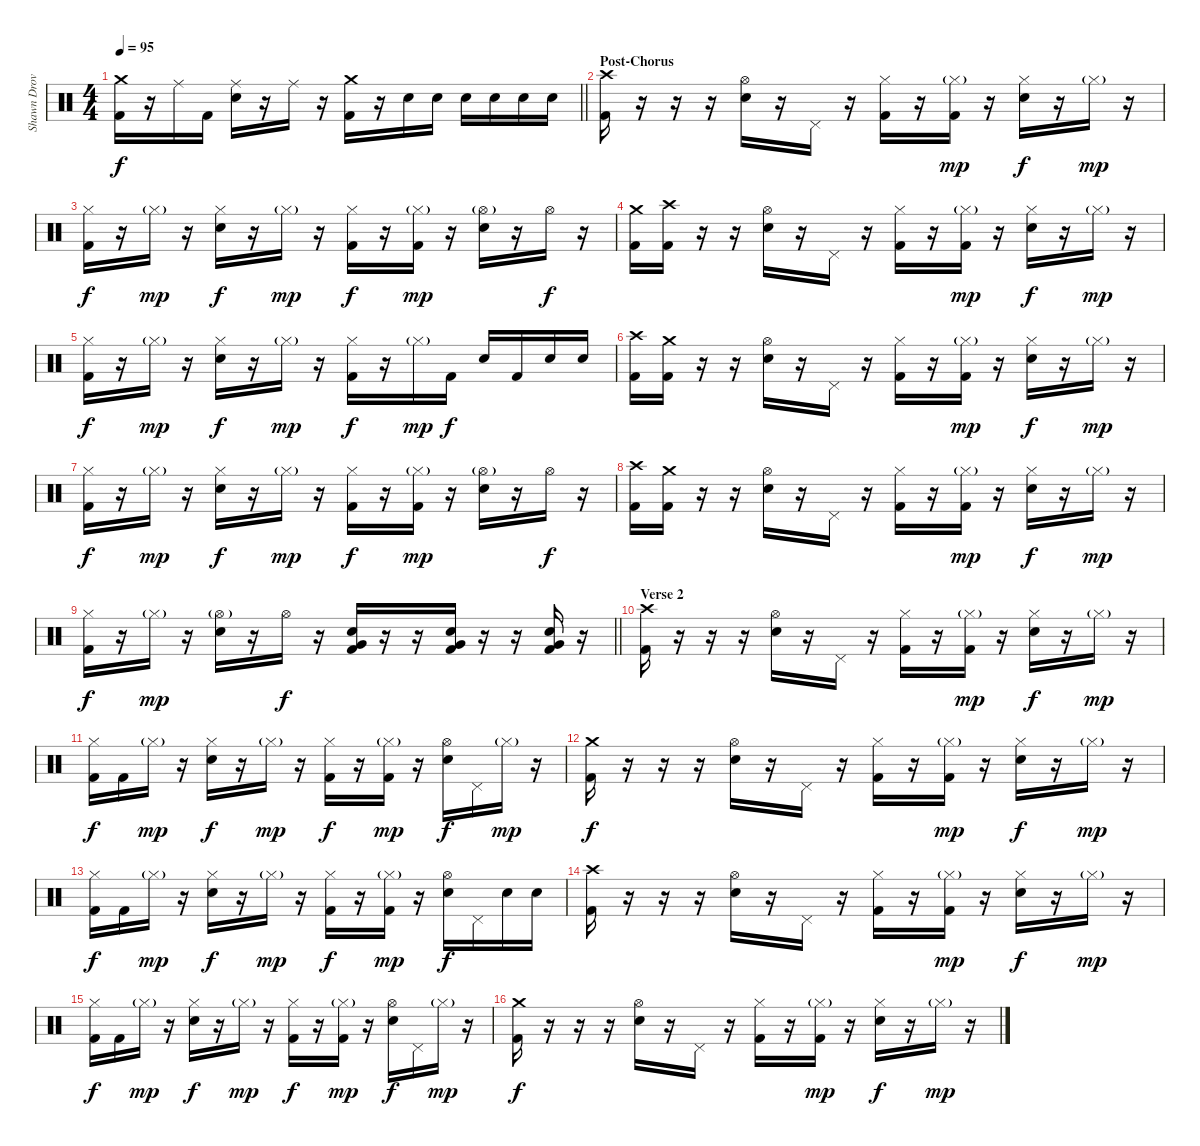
\track ("Shawn Drover" "Shawn Drov") {instrument percussion}
\staff {score}
\articulation defaults
\ts (4 4)
\tempo 95
\clef neutral
\barLineRight lightlight
\ks c
("Crash medium (hit)" "Kick (hit) 2").16{dy f} r.16 "Ride (middle)".16 "Kick (hit) 2".16 ("Ride (middle)" "Snare (hit) 2").16 r.16 "Ride (middle)".16 r.16 ("Crash medium (hit)" "Kick (hit) 2").16 r.16 "Snare (hit) 2".16 "Snare (hit) 2".16 "Snare (hit) 2".16 "Snare (hit) 2".16 "Snare (hit) 2".16 "Snare (hit) 2".16 |
\section ("" "Post-Chorus")
("Crash high (hit)" "Kick (hit) 2").16 r.16 r.16 r.16 ("Hi-Hat (open)" "Snare (hit) 2").16 r.16 "Pedal Hi-Hat (hit)".16 r.16 ("Hi-Hat (closed)" "Kick (hit) 2").16 r.16 ("Hi-Hat (closed)"{g} "Kick (hit) 2").16{dy mp} r.16 ("Hi-Hat (closed)" "Snare (hit) 2").16{dy f} r.16 "Hi-Hat (closed)"{g}.16{dy mp} r.16 |
("Hi-Hat (closed)" "Kick (hit) 2").16{dy f} r.16 "Hi-Hat (closed)"{g}.16{dy mp} r.16 ("Hi-Hat (closed)" "Snare (hit) 2").16{dy f} r.16 "Hi-Hat (closed)"{g}.16{dy mp} r.16 ("Hi-Hat (closed)" "Kick (hit) 2").16{dy f} r.16 ("Hi-Hat (closed)"{g} "Kick (hit) 2").16{dy mp} r.16 ("Hi-Hat (open)"{g} "Snare (hit) 2").16 r.16 "Hi-Hat (open)".16{dy f} r.16 |
("Crash medium (hit)" "Kick (hit) 2").16 ("Crash high (hit)" "Kick (hit) 2").16 r.16 r.16 ("Hi-Hat (open)" "Snare (hit) 2").16 r.16 "Pedal Hi-Hat (hit)".16 r.16 ("Hi-Hat (closed)" "Kick (hit) 2").16 r.16 ("Hi-Hat (closed)"{g} "Kick (hit) 2").16{dy mp} r.16 ("Hi-Hat (closed)" "Snare (hit) 2").16{dy f} r.16 "Hi-Hat (closed)"{g}.16{dy mp} r.16 |
("Hi-Hat (closed)" "Kick (hit) 2").16{dy f} r.16 "Hi-Hat (closed)"{g}.16{dy mp} r.16 ("Hi-Hat (closed)" "Snare (hit) 2").16{dy f} r.16 "Hi-Hat (closed)"{g}.16{dy mp} r.16 ("Hi-Hat (closed)" "Kick (hit) 2").16{dy f} r.16 "Hi-Hat (closed)"{g}.16{dy mp} "Kick (hit) 2".16{dy f} "Snare (hit) 2".16 "Kick (hit) 2".16 "Snare (hit) 2".16 "Snare (hit) 2".16 |
("Crash high (hit)" "Kick (hit) 2").16 ("Crash medium (hit)" "Kick (hit) 2").16 r.16 r.16 ("Hi-Hat (open)" "Snare (hit) 2").16 r.16 "Pedal Hi-Hat (hit)".16 r.16 ("Hi-Hat (closed)" "Kick (hit) 2").16 r.16 ("Hi-Hat (closed)"{g} "Kick (hit) 2").16{dy mp} r.16 ("Hi-Hat (closed)" "Snare (hit) 2").16{dy f} r.16 "Hi-Hat (closed)"{g}.16{dy mp} r.16 |
("Hi-Hat (closed)" "Kick (hit) 2").16{dy f} r.16 "Hi-Hat (closed)"{g}.16{dy mp} r.16 ("Hi-Hat (closed)" "Snare (hit) 2").16{dy f} r.16 "Hi-Hat (closed)"{g}.16{dy mp} r.16 ("Hi-Hat (closed)" "Kick (hit) 2").16{dy f} r.16 ("Hi-Hat (closed)"{g} "Kick (hit) 2").16{dy mp} r.16 ("Hi-Hat (open)"{g} "Snare (hit) 2").16 r.16 "Hi-Hat (open)".16{dy f} r.16 |
("Crash high (hit)" "Kick (hit) 2").16 ("Crash medium (hit)" "Kick (hit) 2").16 r.16 r.16 ("Hi-Hat (open)" "Snare (hit) 2").16 r.16 "Pedal Hi-Hat (hit)".16 r.16 ("Hi-Hat (closed)" "Kick (hit) 2").16 r.16 ("Hi-Hat (closed)"{g} "Kick (hit) 2").16{dy mp} r.16 ("Hi-Hat (closed)" "Snare (hit) 2").16{dy f} r.16 "Hi-Hat (closed)"{g}.16{dy mp} r.16 |
\barLineRight lightlight
("Hi-Hat (closed)" "Kick (hit) 2").16{dy f} r.16 "Hi-Hat (closed)"{g}.16{dy mp} r.16 ("Hi-Hat (open)"{g} "Snare (hit) 2").16 r.16 "Hi-Hat (open)".16{dy f} r.16 ("Very Low Tom (hit)" "Snare (hit) 2" "Kick (hit) 2").16 r.16 r.16 ("Very Low Tom (hit)" "Snare (hit) 2" "Kick (hit) 2").16 r.16 r.16 ("Very Low Tom (hit)" "Snare (hit) 2" "Kick (hit) 2").16 r.16 |
\section ("" "Verse 2")
("Crash high (hit)" "Kick (hit) 2").16 r.16 r.16 r.16 ("Hi-Hat (open)" "Snare (hit) 2").16 r.16 "Pedal Hi-Hat (hit)".16 r.16 ("Hi-Hat (closed)" "Kick (hit) 2").16 r.16 ("Hi-Hat (closed)"{g} "Kick (hit) 2").16{dy mp} r.16 ("Hi-Hat (closed)" "Snare (hit) 2").16{dy f} r.16 "Hi-Hat (closed)"{g}.16{dy mp} r.16 |
("Hi-Hat (closed)" "Kick (hit) 2").16{dy f} "Kick (hit) 2".16 "Hi-Hat (closed)"{g}.16{dy mp} r.16 ("Hi-Hat (closed)" "Snare (hit) 2").16{dy f} r.16 "Hi-Hat (closed)"{g}.16{dy mp} r.16 ("Hi-Hat (closed)" "Kick (hit) 2").16{dy f} r.16 ("Hi-Hat (closed)"{g} "Kick (hit) 2").16{dy mp} r.16 ("Hi-Hat (open)" "Snare (hit) 2").16{dy f} "Pedal Hi-Hat (hit)".16 "Hi-Hat (closed)"{g}.16{dy mp} r.16 |
("Crash medium (hit)" "Kick (hit) 2").16{dy f} r.16 r.16 r.16 ("Hi-Hat (open)" "Snare (hit) 2").16 r.16 "Pedal Hi-Hat (hit)".16 r.16 ("Hi-Hat (closed)" "Kick (hit) 2").16 r.16 ("Hi-Hat (closed)"{g} "Kick (hit) 2").16{dy mp} r.16 ("Hi-Hat (closed)" "Snare (hit) 2").16{dy f} r.16 "Hi-Hat (closed)"{g}.16{dy mp} r.16 |
("Hi-Hat (closed)" "Kick (hit) 2").16{dy f} "Kick (hit) 2".16 "Hi-Hat (closed)"{g}.16{dy mp} r.16 ("Hi-Hat (closed)" "Snare (hit) 2").16{dy f} r.16 "Hi-Hat (closed)"{g}.16{dy mp} r.16 ("Hi-Hat (closed)" "Kick (hit) 2").16{dy f} r.16 ("Hi-Hat (closed)"{g} "Kick (hit) 2").16{dy mp} r.16 ("Hi-Hat (open)" "Snare (hit) 2").16{dy f} "Pedal Hi-Hat (hit)".16 "Snare (hit) 2".16 "Snare (hit) 2".16 |
("Crash high (hit)" "Kick (hit) 2").16 r.16 r.16 r.16 ("Hi-Hat (open)" "Snare (hit) 2").16 r.16 "Pedal Hi-Hat (hit)".16 r.16 ("Hi-Hat (closed)" "Kick (hit) 2").16 r.16 ("Hi-Hat (closed)"{g} "Kick (hit) 2").16{dy mp} r.16 ("Hi-Hat (closed)" "Snare (hit) 2").16{dy f} r.16 "Hi-Hat (closed)"{g}.16{dy mp} r.16 |
("Hi-Hat (closed)" "Kick (hit) 2").16{dy f} "Kick (hit) 2".16 "Hi-Hat (closed)"{g}.16{dy mp} r.16 ("Hi-Hat (closed)" "Snare (hit) 2").16{dy f} r.16 "Hi-Hat (closed)"{g}.16{dy mp} r.16 ("Hi-Hat (closed)" "Kick (hit) 2").16{dy f} r.16 ("Hi-Hat (closed)"{g} "Kick (hit) 2").16{dy mp} r.16 ("Hi-Hat (open)" "Snare (hit) 2").16{dy f} "Pedal Hi-Hat (hit)".16 "Hi-Hat (closed)"{g}.16{dy mp} r.16 |
("Crash medium (hit)" "Kick (hit) 2").16{dy f} r.16 r.16 r.16 ("Hi-Hat (open)" "Snare (hit) 2").16 r.16 "Pedal Hi-Hat (hit)".16 r.16 ("Hi-Hat (closed)" "Kick (hit) 2").16 r.16 ("Hi-Hat (closed)"{g} "Kick (hit) 2").16{dy mp} r.16 ("Hi-Hat (closed)" "Snare (hit) 2").16{dy f} r.16 "Hi-Hat (closed)"{g}.16{dy mp} r.16
